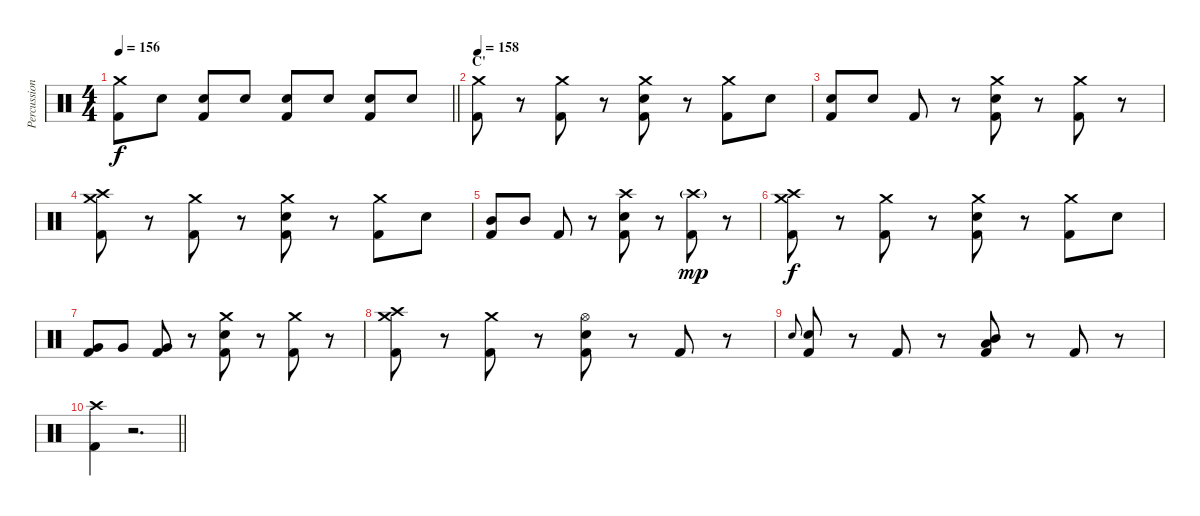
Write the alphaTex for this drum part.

\track ("Percussion" "Percussion") {instrument percussion}
\staff {score}
\articulation defaults
\ts (4 4)
\tempo 156
\clef neutral
\barLineRight lightlight
\ks c
("Crash medium (hit)" "Kick (hit) 2").8{dy f} "Snare (hit) 2".8 ("Snare (hit) 2" "Kick (hit) 2").8 "Snare (hit) 2".8 ("Snare (hit) 2" "Kick (hit) 2").8 "Snare (hit) 2".8 ("Snare (hit) 2" "Kick (hit) 2").8 "Snare (hit) 2".8 |
\section ("" "C'")
\tempo 158
("Crash medium (hit)" "Kick (hit) 2").8 r.8 ("Crash medium (hit)" "Kick (hit) 2").8 r.8 ("Crash medium (hit)" "Snare (hit) 2" "Kick (hit) 2").8 r.8 ("Crash medium (hit)" "Kick (hit) 2").8 "Snare (hit) 2".8 |
("Snare (hit) 2" "Kick (hit) 2").8 "Snare (hit) 2".8 "Kick (hit) 2".8 r.8 ("Crash medium (hit)" "Snare (hit) 2" "Kick (hit) 2").8 r.8 ("Crash medium (hit)" "Kick (hit) 2").8 r.8 |
("Crash high (hit)" "Crash medium (hit)" "Kick (hit) 2").8 r.8 ("Crash medium (hit)" "Kick (hit) 2").8 r.8 ("Crash medium (hit)" "Snare (hit) 2" "Kick (hit) 2").8 r.8 ("Crash medium (hit)" "Kick (hit) 2").8 "Snare (hit) 2".8 |
("Mid Tom (hit)" "Kick (hit) 2").8 "Mid Tom (hit)".8 "Kick (hit) 2".8 r.8 ("Crash high (hit)" "Snare (hit) 2" "Kick (hit) 2").8 r.8 ("Crash high (hit)"{g} "Kick (hit) 2").8{dy mp} r.8 |
("Crash high (hit)" "Crash medium (hit)" "Kick (hit) 2").8{dy f} r.8 ("Crash medium (hit)" "Kick (hit) 2").8 r.8 ("Crash medium (hit)" "Snare (hit) 2" "Kick (hit) 2").8 r.8 ("Crash medium (hit)" "Kick (hit) 2").8 "Snare (hit) 2".8 |
("Very Low Tom (hit)" "Kick (hit) 2").8 "Very Low Tom (hit)".8 ("Very Low Tom (hit)" "Kick (hit) 2").8 r.8 ("Crash medium (hit)" "Snare (hit) 2" "Kick (hit) 2").8 r.8 ("Crash medium (hit)" "Kick (hit) 2").8 r.8 |
("Crash high (hit)" "Crash medium (hit)" "Kick (hit) 2").8 r.8 ("Crash medium (hit)" "Kick (hit) 2").8 r.8 ("Hi-Hat (open)" "Snare (hit) 2" "Kick (hit) 2").8 r.8 "Kick (hit) 2".8 r.8 |
"Snare (hit) 2".8{gr onbeat} ("Snare (hit) 2" "Kick (hit) 2").8 r.8 "Kick (hit) 2".8 r.8 ("Mid Tom (hit)" "Low Tom (hit)" "Kick (hit) 2").8 r.8 "Kick (hit) 2".8 r.8 |
\barLineRight lightlight
("Crash high (hit)" "Kick (hit) 2").4 r.2{d}
